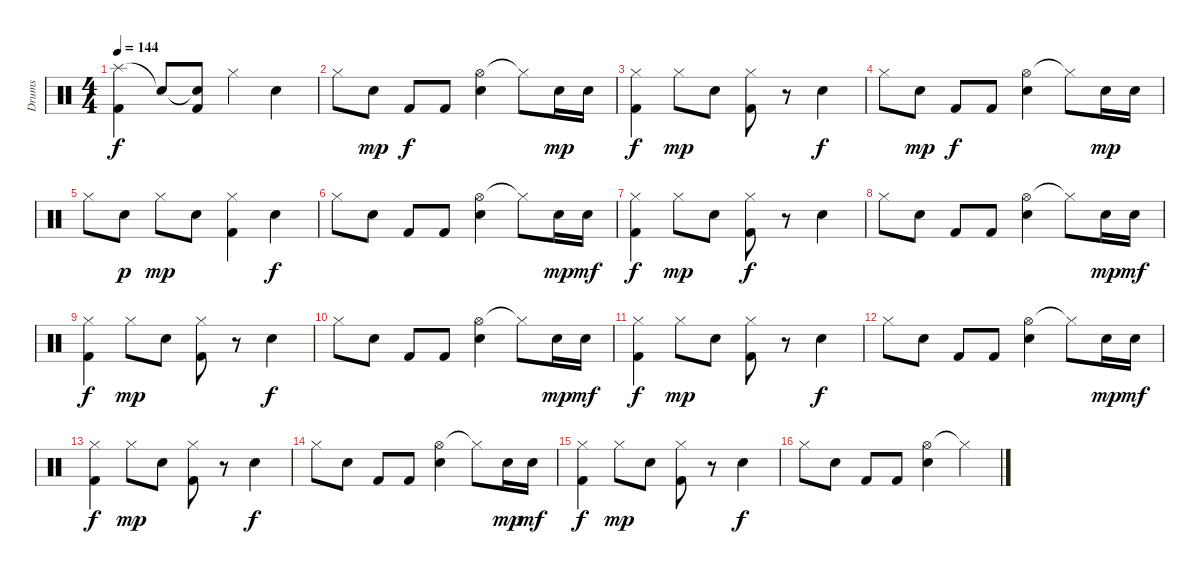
\track ("Drums" "Drums") {instrument percussion}
\staff {score}
\articulation defaults
\ts (4 4)
\tempo 144
\clef neutral
\ks c
("Splash (hit)" "Kick (hit) 2").4{dy f} "Snare (hit)"{t}.8 ("Snare (hit)"{t} "Kick (hit) 2").8 "Hi-Hat (closed)".4 "Electric Snare (hit)".4 |
"Hi-Hat (closed)".8 "Electric Snare (hit)".8{dy mp} "Kick (hit) 2".8{dy f} "Kick (hit) 2".8 ("Hi-Hat (open)" "Electric Snare (hit)").4 "Hi-Hat (closed)"{t}.8 "Electric Snare (hit)".16{dy mp} "Electric Snare (hit)".16 |
("Hi-Hat (closed)" "Kick (hit) 2").4{dy f} "Hi-Hat (closed)".8{dy mp} "Electric Snare (hit)".8 ("Hi-Hat (closed)" "Kick (hit) 2").8 r.8 "Electric Snare (hit)".4{dy f} |
"Hi-Hat (closed)".8 "Electric Snare (hit)".8{dy mp} "Kick (hit) 2".8{dy f} "Kick (hit) 2".8 ("Hi-Hat (open)" "Electric Snare (hit)").4 "Hi-Hat (closed)"{t}.8 "Electric Snare (hit)".16{dy mp} "Electric Snare (hit)".16 |
"Hi-Hat (closed)".8 "Electric Snare (hit)".8{dy p} "Hi-Hat (closed)".8{dy mp} "Electric Snare (hit)".8 ("Hi-Hat (closed)" "Kick (hit) 2").4 "Electric Snare (hit)".4{dy f} |
"Hi-Hat (closed)".8 "Electric Snare (hit)".8 "Kick (hit) 2".8 "Kick (hit) 2".8 ("Hi-Hat (open)" "Electric Snare (hit)").4 "Hi-Hat (closed)"{t}.8 "Electric Snare (hit)".16{dy mp} "Electric Snare (hit)".16{dy mf} |
("Hi-Hat (closed)" "Kick (hit) 2").4{dy f} "Hi-Hat (closed)".8{dy mp} "Electric Snare (hit)".8 ("Hi-Hat (closed)" "Kick (hit) 2").8{dy f} r.8 "Electric Snare (hit)".4 |
"Hi-Hat (closed)".8 "Electric Snare (hit)".8 "Kick (hit) 2".8 "Kick (hit) 2".8 ("Hi-Hat (open)" "Electric Snare (hit)").4 "Hi-Hat (closed)"{t}.8 "Electric Snare (hit)".16{dy mp} "Electric Snare (hit)".16{dy mf} |
("Hi-Hat (closed)" "Kick (hit) 2").4{dy f} "Hi-Hat (closed)".8{dy mp} "Electric Snare (hit)".8 ("Hi-Hat (closed)" "Kick (hit) 2").8 r.8 "Electric Snare (hit)".4{dy f} |
"Hi-Hat (closed)".8 "Electric Snare (hit)".8 "Kick (hit) 2".8 "Kick (hit) 2".8 ("Hi-Hat (open)" "Electric Snare (hit)").4 "Hi-Hat (closed)"{t}.8 "Electric Snare (hit)".16{dy mp} "Electric Snare (hit)".16{dy mf} |
("Hi-Hat (closed)" "Kick (hit) 2").4{dy f} "Hi-Hat (closed)".8{dy mp} "Electric Snare (hit)".8 ("Hi-Hat (closed)" "Kick (hit) 2").8 r.8 "Electric Snare (hit)".4{dy f} |
"Hi-Hat (closed)".8 "Electric Snare (hit)".8 "Kick (hit) 2".8 "Kick (hit) 2".8 ("Hi-Hat (open)" "Electric Snare (hit)").4 "Hi-Hat (closed)"{t}.8 "Electric Snare (hit)".16{dy mp} "Electric Snare (hit)".16{dy mf} |
("Hi-Hat (closed)" "Kick (hit) 2").4{dy f} "Hi-Hat (closed)".8{dy mp} "Electric Snare (hit)".8 ("Hi-Hat (closed)" "Kick (hit) 2").8 r.8 "Electric Snare (hit)".4{dy f} |
"Hi-Hat (closed)".8 "Electric Snare (hit)".8 "Kick (hit) 2".8 "Kick (hit) 2".8 ("Hi-Hat (open)" "Electric Snare (hit)").4 "Hi-Hat (closed)"{t}.8 "Electric Snare (hit)".16{dy mp} "Electric Snare (hit)".16{dy mf} |
("Hi-Hat (closed)" "Kick (hit) 2").4{dy f} "Hi-Hat (closed)".8{dy mp} "Electric Snare (hit)".8 ("Hi-Hat (closed)" "Kick (hit) 2").8 r.8 "Electric Snare (hit)".4{dy f} |
"Hi-Hat (closed)".8 "Electric Snare (hit)".8 "Kick (hit) 2".8 "Kick (hit) 2".8 ("Hi-Hat (open)" "Electric Snare (hit)").4 "Hi-Hat (closed)"{t}.4
